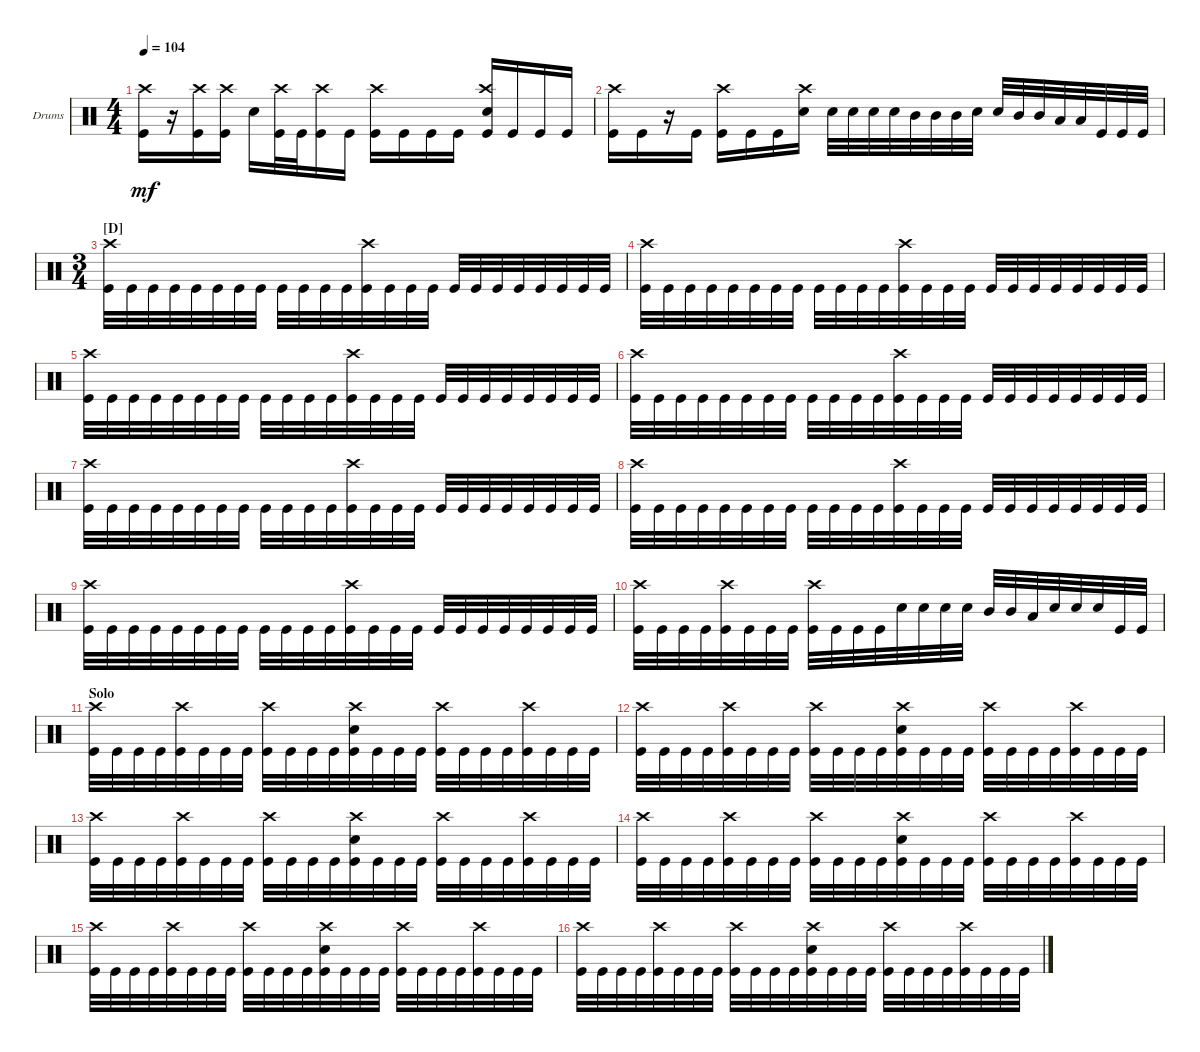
\bracketExtendMode groupsimilarinstruments
\firstSystemTrackNameOrientation horizontal
\otherSystemsTrackNameOrientation horizontal
\track ("Drumkit" "Drums") {instrument percussion}
\staff {score}
\articulation defaults
\ts (4 4)
\tempo 104
\clef neutral
\ks c
("Kick (hit)" "Crash high (hit)").16{dy mf} r.16 ("Kick (hit)" "Crash high (hit)").16 ("Kick (hit)" "Crash high (hit)").16 "Snare (hit) 2".16 ("Kick (hit)" "Crash high (hit)").32 "Kick (hit)".32 ("Kick (hit)" "Crash high (hit)").16 "Kick (hit)".16 ("Kick (hit)" "Crash high (hit)").16 "Kick (hit)".16 "Kick (hit)".16 "Kick (hit)".16 ("Snare (hit) 2" "Kick (hit)" "Crash high (hit)").16 "Kick (hit)".16 "Kick (hit)".16 "Kick (hit)".16 |
("Kick (hit)" "Crash high (hit)").16 "Kick (hit)".16 r.16 "Kick (hit)".16 ("Kick (hit)" "Crash high (hit)").16 "Kick (hit)".16 "Kick (hit)".16 ("Crash high (hit)" "Snare (hit) 2").16 "Snare (hit) 2".32 "Snare (hit) 2".32 "Snare (hit) 2".32 "Snare (hit) 2".32 "Mid Tom (hit)".32 "Mid Tom (hit)".32 "Mid Tom (hit)".32 "Snare (hit) 2".32 "Snare (hit) 2".32 "Mid Tom (hit)".32 "Mid Tom (hit)".32 "Low Tom (hit)".32 "Low Tom (hit)".32 "Kick (hit)".32 "Kick (hit)".32 "Kick (hit)".32 |
\ts (3 4)
\section ("D" "")
("Kick (hit)" "Crash high (hit)").32 "Kick (hit)".32 "Kick (hit)".32 "Kick (hit)".32 "Kick (hit)".32 "Kick (hit)".32 "Kick (hit)".32 "Kick (hit)".32 "Kick (hit)".32 "Kick (hit)".32 "Kick (hit)".32 "Kick (hit)".32 ("Kick (hit)" "Crash high (hit)").32 "Kick (hit)".32 "Kick (hit)".32 "Kick (hit)".32 "Kick (hit)".32 "Kick (hit)".32 "Kick (hit)".32 "Kick (hit)".32 "Kick (hit)".32 "Kick (hit)".32 "Kick (hit)".32 "Kick (hit)".32 |
("Kick (hit)" "Crash high (hit)").32 "Kick (hit)".32 "Kick (hit)".32 "Kick (hit)".32 "Kick (hit)".32 "Kick (hit)".32 "Kick (hit)".32 "Kick (hit)".32 "Kick (hit)".32 "Kick (hit)".32 "Kick (hit)".32 "Kick (hit)".32 ("Kick (hit)" "Crash high (hit)").32 "Kick (hit)".32 "Kick (hit)".32 "Kick (hit)".32 "Kick (hit)".32 "Kick (hit)".32 "Kick (hit)".32 "Kick (hit)".32 "Kick (hit)".32 "Kick (hit)".32 "Kick (hit)".32 "Kick (hit)".32 |
("Kick (hit)" "Crash high (hit)").32 "Kick (hit)".32 "Kick (hit)".32 "Kick (hit)".32 "Kick (hit)".32 "Kick (hit)".32 "Kick (hit)".32 "Kick (hit)".32 "Kick (hit)".32 "Kick (hit)".32 "Kick (hit)".32 "Kick (hit)".32 ("Kick (hit)" "Crash high (hit)").32 "Kick (hit)".32 "Kick (hit)".32 "Kick (hit)".32 "Kick (hit)".32 "Kick (hit)".32 "Kick (hit)".32 "Kick (hit)".32 "Kick (hit)".32 "Kick (hit)".32 "Kick (hit)".32 "Kick (hit)".32 |
("Kick (hit)" "Crash high (hit)").32 "Kick (hit)".32 "Kick (hit)".32 "Kick (hit)".32 "Kick (hit)".32 "Kick (hit)".32 "Kick (hit)".32 "Kick (hit)".32 "Kick (hit)".32 "Kick (hit)".32 "Kick (hit)".32 "Kick (hit)".32 ("Kick (hit)" "Crash high (hit)").32 "Kick (hit)".32 "Kick (hit)".32 "Kick (hit)".32 "Kick (hit)".32 "Kick (hit)".32 "Kick (hit)".32 "Kick (hit)".32 "Kick (hit)".32 "Kick (hit)".32 "Kick (hit)".32 "Kick (hit)".32 |
("Kick (hit)" "Crash high (hit)").32 "Kick (hit)".32 "Kick (hit)".32 "Kick (hit)".32 "Kick (hit)".32 "Kick (hit)".32 "Kick (hit)".32 "Kick (hit)".32 "Kick (hit)".32 "Kick (hit)".32 "Kick (hit)".32 "Kick (hit)".32 ("Kick (hit)" "Crash high (hit)").32 "Kick (hit)".32 "Kick (hit)".32 "Kick (hit)".32 "Kick (hit)".32 "Kick (hit)".32 "Kick (hit)".32 "Kick (hit)".32 "Kick (hit)".32 "Kick (hit)".32 "Kick (hit)".32 "Kick (hit)".32 |
("Kick (hit)" "Crash high (hit)").32 "Kick (hit)".32 "Kick (hit)".32 "Kick (hit)".32 "Kick (hit)".32 "Kick (hit)".32 "Kick (hit)".32 "Kick (hit)".32 "Kick (hit)".32 "Kick (hit)".32 "Kick (hit)".32 "Kick (hit)".32 ("Kick (hit)" "Crash high (hit)").32 "Kick (hit)".32 "Kick (hit)".32 "Kick (hit)".32 "Kick (hit)".32 "Kick (hit)".32 "Kick (hit)".32 "Kick (hit)".32 "Kick (hit)".32 "Kick (hit)".32 "Kick (hit)".32 "Kick (hit)".32 |
("Kick (hit)" "Crash high (hit)").32 "Kick (hit)".32 "Kick (hit)".32 "Kick (hit)".32 "Kick (hit)".32 "Kick (hit)".32 "Kick (hit)".32 "Kick (hit)".32 "Kick (hit)".32 "Kick (hit)".32 "Kick (hit)".32 "Kick (hit)".32 ("Kick (hit)" "Crash high (hit)").32 "Kick (hit)".32 "Kick (hit)".32 "Kick (hit)".32 "Kick (hit)".32 "Kick (hit)".32 "Kick (hit)".32 "Kick (hit)".32 "Kick (hit)".32 "Kick (hit)".32 "Kick (hit)".32 "Kick (hit)".32 |
("Kick (hit)" "Crash high (hit)").32 "Kick (hit)".32 "Kick (hit)".32 "Kick (hit)".32 ("Kick (hit)" "Crash high (hit)").32 "Kick (hit)".32 "Kick (hit)".32 "Kick (hit)".32 ("Kick (hit)" "Crash high (hit)").32 "Kick (hit)".32 "Kick (hit)".32 "Kick (hit)".32 "Snare (hit) 2".32 "Snare (hit) 2".32 "Snare (hit) 2".32 "Snare (hit) 2".32 "Mid Tom (hit)".32 "Mid Tom (hit)".32 "Low Tom (hit)".32 "Snare (hit) 2".32 "Snare (hit) 2".32 "Snare (hit) 2".32 "Kick (hit)".32 "Kick (hit)".32 |
\section ("" "Solo")
("Kick (hit)" "Crash high (hit)").32 "Kick (hit)".32 "Kick (hit)".32 "Kick (hit)".32 ("Kick (hit)" "Crash high (hit)").32 "Kick (hit)".32 "Kick (hit)".32 "Kick (hit)".32 ("Kick (hit)" "Crash high (hit)").32 "Kick (hit)".32 "Kick (hit)".32 "Kick (hit)".32 ("Kick (hit)" "Crash high (hit)" "Snare (hit) 2").32 "Kick (hit)".32 "Kick (hit)".32 "Kick (hit)".32 ("Kick (hit)" "Crash high (hit)").32 "Kick (hit)".32 "Kick (hit)".32 "Kick (hit)".32 ("Kick (hit)" "Crash high (hit)").32 "Kick (hit)".32 "Kick (hit)".32 "Kick (hit)".32 |
("Kick (hit)" "Crash high (hit)").32 "Kick (hit)".32 "Kick (hit)".32 "Kick (hit)".32 ("Kick (hit)" "Crash high (hit)").32 "Kick (hit)".32 "Kick (hit)".32 "Kick (hit)".32 ("Kick (hit)" "Crash high (hit)").32 "Kick (hit)".32 "Kick (hit)".32 "Kick (hit)".32 ("Kick (hit)" "Crash high (hit)" "Snare (hit) 2").32 "Kick (hit)".32 "Kick (hit)".32 "Kick (hit)".32 ("Kick (hit)" "Crash high (hit)").32 "Kick (hit)".32 "Kick (hit)".32 "Kick (hit)".32 ("Kick (hit)" "Crash high (hit)").32 "Kick (hit)".32 "Kick (hit)".32 "Kick (hit)".32 |
("Kick (hit)" "Crash high (hit)").32 "Kick (hit)".32 "Kick (hit)".32 "Kick (hit)".32 ("Kick (hit)" "Crash high (hit)").32 "Kick (hit)".32 "Kick (hit)".32 "Kick (hit)".32 ("Kick (hit)" "Crash high (hit)").32 "Kick (hit)".32 "Kick (hit)".32 "Kick (hit)".32 ("Kick (hit)" "Crash high (hit)" "Snare (hit) 2").32 "Kick (hit)".32 "Kick (hit)".32 "Kick (hit)".32 ("Kick (hit)" "Crash high (hit)").32 "Kick (hit)".32 "Kick (hit)".32 "Kick (hit)".32 ("Kick (hit)" "Crash high (hit)").32 "Kick (hit)".32 "Kick (hit)".32 "Kick (hit)".32 |
("Kick (hit)" "Crash high (hit)").32 "Kick (hit)".32 "Kick (hit)".32 "Kick (hit)".32 ("Kick (hit)" "Crash high (hit)").32 "Kick (hit)".32 "Kick (hit)".32 "Kick (hit)".32 ("Kick (hit)" "Crash high (hit)").32 "Kick (hit)".32 "Kick (hit)".32 "Kick (hit)".32 ("Kick (hit)" "Crash high (hit)" "Snare (hit) 2").32 "Kick (hit)".32 "Kick (hit)".32 "Kick (hit)".32 ("Kick (hit)" "Crash high (hit)").32 "Kick (hit)".32 "Kick (hit)".32 "Kick (hit)".32 ("Kick (hit)" "Crash high (hit)").32 "Kick (hit)".32 "Kick (hit)".32 "Kick (hit)".32 |
("Kick (hit)" "Crash high (hit)").32 "Kick (hit)".32 "Kick (hit)".32 "Kick (hit)".32 ("Kick (hit)" "Crash high (hit)").32 "Kick (hit)".32 "Kick (hit)".32 "Kick (hit)".32 ("Kick (hit)" "Crash high (hit)").32 "Kick (hit)".32 "Kick (hit)".32 "Kick (hit)".32 ("Kick (hit)" "Crash high (hit)" "Snare (hit) 2").32 "Kick (hit)".32 "Kick (hit)".32 "Kick (hit)".32 ("Kick (hit)" "Crash high (hit)").32 "Kick (hit)".32 "Kick (hit)".32 "Kick (hit)".32 ("Kick (hit)" "Crash high (hit)").32 "Kick (hit)".32 "Kick (hit)".32 "Kick (hit)".32 |
("Kick (hit)" "Crash high (hit)").32 "Kick (hit)".32 "Kick (hit)".32 "Kick (hit)".32 ("Kick (hit)" "Crash high (hit)").32 "Kick (hit)".32 "Kick (hit)".32 "Kick (hit)".32 ("Kick (hit)" "Crash high (hit)").32 "Kick (hit)".32 "Kick (hit)".32 "Kick (hit)".32 ("Kick (hit)" "Crash high (hit)" "Snare (hit) 2").32 "Kick (hit)".32 "Kick (hit)".32 "Kick (hit)".32 ("Kick (hit)" "Crash high (hit)").32 "Kick (hit)".32 "Kick (hit)".32 "Kick (hit)".32 ("Kick (hit)" "Crash high (hit)").32 "Kick (hit)".32 "Kick (hit)".32 "Kick (hit)".32
